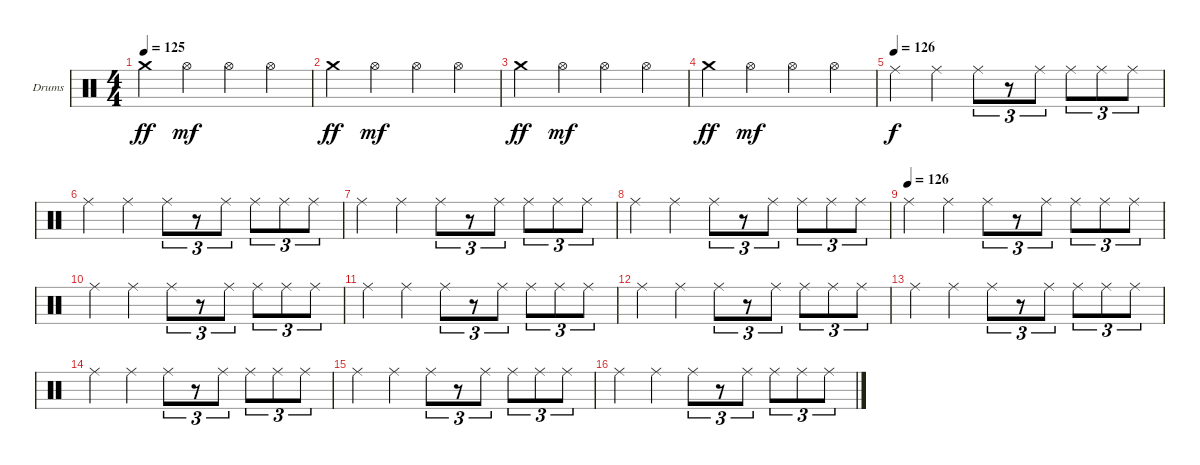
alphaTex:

\defaultSystemsLayout 4
\bracketExtendMode groupsimilarinstruments
\firstSystemTrackNameOrientation horizontal
\otherSystemsTrackNameOrientation horizontal
\track ("Drumkit" "Drums") {instrument percussion}
\staff {score}
\articulation defaults
\ts (4 4)
\tempo 125
\clef neutral
\scale
0.333333
\ks c "Crash medium (hit)".4{dy ff} "Hi-Hat (open)".4{dy mf} "Hi-Hat (open)".4 "Hi-Hat (open)".4
|
\scale
0.333333 "Crash medium (hit)".4{dy ff} "Hi-Hat (open)".4{dy mf} "Hi-Hat (open)".4 "Hi-Hat (open)".4 |
\scale
0.333333 "Crash medium (hit)".4{dy ff} "Hi-Hat (open)".4{dy mf} "Hi-Hat (open)".4 "Hi-Hat (open)".4 |
\scale
0.333333 "Crash medium (hit)".4{dy ff} "Hi-Hat (open)".4{dy mf} "Hi-Hat (open)".4 "Hi-Hat (open)".4 |
\tempo 126
\scale
0.333333 "Ride (middle)".4{dy f} "Ride (middle)".4 "Ride (middle)".8{tu (3 2)} r.8{tu (3 2)} "Ride (middle)".8{tu (3 2)} "Ride (middle)".8{tu (3 2)} "Ride (middle)".8{tu (3 2)} "Ride (middle)".8{tu (3 2)} |
\scale
0.333333 "Ride (middle)".4 "Ride (middle)".4 "Ride (middle)".8{tu (3 2)} r.8{tu (3 2)} "Ride (middle)".8{tu (3 2)} "Ride (middle)".8{tu (3 2)} "Ride (middle)".8{tu (3 2)} "Ride (middle)".8{tu (3 2)} |
\scale
0.333333 "Ride (middle)".4 "Ride (middle)".4 "Ride (middle)".8{tu (3 2)} r.8{tu (3 2)} "Ride (middle)".8{tu (3 2)} "Ride (middle)".8{tu (3 2)} "Ride (middle)".8{tu (3 2)} "Ride (middle)".8{tu (3 2)} |
\scale
0.333333 "Ride (middle)".4 "Ride (middle)".4 "Ride (middle)".8{tu (3 2)} r.8{tu (3 2)} "Ride (middle)".8{tu (3 2)} "Ride (middle)".8{tu (3 2)} "Ride (middle)".8{tu (3 2)} "Ride (middle)".8{tu (3 2)} |
\tempo 126
\scale
0.333333 "Ride (middle)".4 "Ride (middle)".4 "Ride (middle)".8{tu (3 2)} r.8{tu (3 2)} "Ride (middle)".8{tu (3 2)} "Ride (middle)".8{tu (3 2)} "Ride (middle)".8{tu (3 2)} "Ride (middle)".8{tu (3 2)} |
\scale
0.333333 "Ride (middle)".4 "Ride (middle)".4 "Ride (middle)".8{tu (3 2)} r.8{tu (3 2)} "Ride (middle)".8{tu (3 2)} "Ride (middle)".8{tu (3 2)} "Ride (middle)".8{tu (3 2)} "Ride (middle)".8{tu (3 2)} |
\scale
0.333333 "Ride (middle)".4 "Ride (middle)".4 "Ride (middle)".8{tu (3 2)} r.8{tu (3 2)} "Ride (middle)".8{tu (3 2)} "Ride (middle)".8{tu (3 2)} "Ride (middle)".8{tu (3 2)} "Ride (middle)".8{tu (3 2)} |
\scale
0.333333 "Ride (middle)".4 "Ride (middle)".4 "Ride (middle)".8{tu (3 2)} r.8{tu (3 2)} "Ride (middle)".8{tu (3 2)} "Ride (middle)".8{tu (3 2)} "Ride (middle)".8{tu (3 2)} "Ride (middle)".8{tu (3 2)} |
\scale
0.333333 "Ride (middle)".4 "Ride (middle)".4 "Ride (middle)".8{tu (3 2)} r.8{tu (3 2)} "Ride (middle)".8{tu (3 2)} "Ride (middle)".8{tu (3 2)} "Ride (middle)".8{tu (3 2)} "Ride (middle)".8{tu (3 2)} |
\scale
0.333333 "Ride (middle)".4 "Ride (middle)".4 "Ride (middle)".8{tu (3 2)} r.8{tu (3 2)} "Ride (middle)".8{tu (3 2)} "Ride (middle)".8{tu (3 2)} "Ride (middle)".8{tu (3 2)} "Ride (middle)".8{tu (3 2)} |
\scale
0.333333 "Ride (middle)".4 "Ride (middle)".4 "Ride (middle)".8{tu (3 2)} r.8{tu (3 2)} "Ride (middle)".8{tu (3 2)} "Ride (middle)".8{tu (3 2)} "Ride (middle)".8{tu (3 2)} "Ride (middle)".8{tu (3 2)} |
\scale
0.333333 "Ride (middle)".4 "Ride (middle)".4 "Ride (middle)".8{tu (3 2)} r.8{tu (3 2)} "Ride (middle)".8{tu (3 2)} "Ride (middle)".8{tu (3 2)} "Ride (middle)".8{tu (3 2)} "Ride (middle)".8{tu (3 2)}
